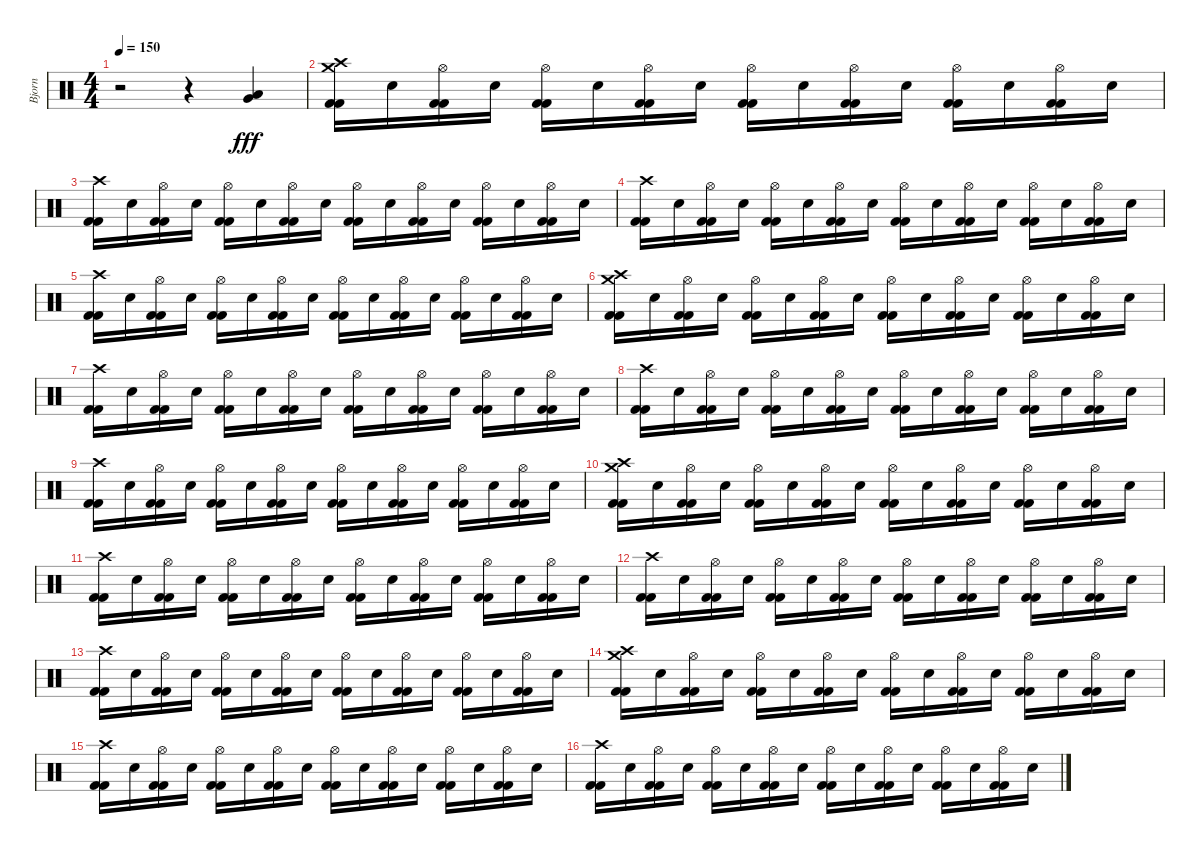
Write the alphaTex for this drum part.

\track ("Bjorn" "Bjorn") {instrument percussion}
\staff {score}
\articulation defaults
\ts (4 4)
\tempo 150
\clef neutral
\ks c
r.2{dy fff} r.4 ("Low Floor Tom (hit)" "Very Low Tom (hit)").4 |
("Kick (hit) 2" "Kick (hit) 2" "Crash high (hit)" "Crash medium (hit)").16 "Snare (hit) 2".16 ("Kick (hit) 2" "Kick (hit) 2" "Hi-Hat (open)").16 "Snare (hit) 2".16 ("Kick (hit) 2" "Kick (hit) 2" "Hi-Hat (open)").16 "Snare (hit) 2".16 ("Kick (hit) 2" "Kick (hit) 2" "Hi-Hat (open)").16 "Snare (hit) 2".16 ("Kick (hit) 2" "Kick (hit) 2" "Hi-Hat (open)").16 "Snare (hit) 2".16 ("Kick (hit) 2" "Kick (hit) 2" "Hi-Hat (open)").16 "Snare (hit) 2".16 ("Kick (hit) 2" "Kick (hit) 2" "Hi-Hat (open)").16 "Snare (hit) 2".16 ("Kick (hit) 2" "Kick (hit) 2" "Hi-Hat (open)").16 "Snare (hit) 2".16 |
("Kick (hit) 2" "Kick (hit) 2" "Crash high (hit)").16 "Snare (hit) 2".16 ("Kick (hit) 2" "Kick (hit) 2" "Hi-Hat (open)").16 "Snare (hit) 2".16 ("Kick (hit) 2" "Kick (hit) 2" "Hi-Hat (open)").16 "Snare (hit) 2".16 ("Kick (hit) 2" "Kick (hit) 2" "Hi-Hat (open)").16 "Snare (hit) 2".16 ("Kick (hit) 2" "Kick (hit) 2" "Hi-Hat (open)").16 "Snare (hit) 2".16 ("Kick (hit) 2" "Kick (hit) 2" "Hi-Hat (open)").16 "Snare (hit) 2".16 ("Kick (hit) 2" "Kick (hit) 2" "Hi-Hat (open)").16 "Snare (hit) 2".16 ("Kick (hit) 2" "Kick (hit) 2" "Hi-Hat (open)").16 "Snare (hit) 2".16 |
("Kick (hit) 2" "Kick (hit) 2" "Crash high (hit)").16 "Snare (hit) 2".16 ("Kick (hit) 2" "Kick (hit) 2" "Hi-Hat (open)").16 "Snare (hit) 2".16 ("Kick (hit) 2" "Kick (hit) 2" "Hi-Hat (open)").16 "Snare (hit) 2".16 ("Kick (hit) 2" "Kick (hit) 2" "Hi-Hat (open)").16 "Snare (hit) 2".16 ("Kick (hit) 2" "Kick (hit) 2" "Hi-Hat (open)").16 "Snare (hit) 2".16 ("Kick (hit) 2" "Kick (hit) 2" "Hi-Hat (open)").16 "Snare (hit) 2".16 ("Kick (hit) 2" "Kick (hit) 2" "Hi-Hat (open)").16 "Snare (hit) 2".16 ("Kick (hit) 2" "Kick (hit) 2" "Hi-Hat (open)").16 "Snare (hit) 2".16 |
("Kick (hit) 2" "Kick (hit) 2" "Crash high (hit)").16 "Snare (hit) 2".16 ("Kick (hit) 2" "Kick (hit) 2" "Hi-Hat (open)").16 "Snare (hit) 2".16 ("Kick (hit) 2" "Kick (hit) 2" "Hi-Hat (open)").16 "Snare (hit) 2".16 ("Kick (hit) 2" "Kick (hit) 2" "Hi-Hat (open)").16 "Snare (hit) 2".16 ("Kick (hit) 2" "Kick (hit) 2" "Hi-Hat (open)").16 "Snare (hit) 2".16 ("Kick (hit) 2" "Kick (hit) 2" "Hi-Hat (open)").16 "Snare (hit) 2".16 ("Kick (hit) 2" "Kick (hit) 2" "Hi-Hat (open)").16 "Snare (hit) 2".16 ("Kick (hit) 2" "Kick (hit) 2" "Hi-Hat (open)").16 "Snare (hit) 2".16 |
("Kick (hit) 2" "Kick (hit) 2" "Crash high (hit)" "Crash medium (hit)").16 "Snare (hit) 2".16 ("Kick (hit) 2" "Kick (hit) 2" "Hi-Hat (open)").16 "Snare (hit) 2".16 ("Kick (hit) 2" "Kick (hit) 2" "Hi-Hat (open)").16 "Snare (hit) 2".16 ("Kick (hit) 2" "Kick (hit) 2" "Hi-Hat (open)").16 "Snare (hit) 2".16 ("Kick (hit) 2" "Kick (hit) 2" "Hi-Hat (open)").16 "Snare (hit) 2".16 ("Kick (hit) 2" "Kick (hit) 2" "Hi-Hat (open)").16 "Snare (hit) 2".16 ("Kick (hit) 2" "Kick (hit) 2" "Hi-Hat (open)").16 "Snare (hit) 2".16 ("Kick (hit) 2" "Kick (hit) 2" "Hi-Hat (open)").16 "Snare (hit) 2".16 |
("Kick (hit) 2" "Kick (hit) 2" "Crash high (hit)").16 "Snare (hit) 2".16 ("Kick (hit) 2" "Kick (hit) 2" "Hi-Hat (open)").16 "Snare (hit) 2".16 ("Kick (hit) 2" "Kick (hit) 2" "Hi-Hat (open)").16 "Snare (hit) 2".16 ("Kick (hit) 2" "Kick (hit) 2" "Hi-Hat (open)").16 "Snare (hit) 2".16 ("Kick (hit) 2" "Kick (hit) 2" "Hi-Hat (open)").16 "Snare (hit) 2".16 ("Kick (hit) 2" "Kick (hit) 2" "Hi-Hat (open)").16 "Snare (hit) 2".16 ("Kick (hit) 2" "Kick (hit) 2" "Hi-Hat (open)").16 "Snare (hit) 2".16 ("Kick (hit) 2" "Kick (hit) 2" "Hi-Hat (open)").16 "Snare (hit) 2".16 |
("Kick (hit) 2" "Kick (hit) 2" "Crash high (hit)").16 "Snare (hit) 2".16 ("Kick (hit) 2" "Kick (hit) 2" "Hi-Hat (open)").16 "Snare (hit) 2".16 ("Kick (hit) 2" "Kick (hit) 2" "Hi-Hat (open)").16 "Snare (hit) 2".16 ("Kick (hit) 2" "Kick (hit) 2" "Hi-Hat (open)").16 "Snare (hit) 2".16 ("Kick (hit) 2" "Kick (hit) 2" "Hi-Hat (open)").16 "Snare (hit) 2".16 ("Kick (hit) 2" "Kick (hit) 2" "Hi-Hat (open)").16 "Snare (hit) 2".16 ("Kick (hit) 2" "Kick (hit) 2" "Hi-Hat (open)").16 "Snare (hit) 2".16 ("Kick (hit) 2" "Kick (hit) 2" "Hi-Hat (open)").16 "Snare (hit) 2".16 |
("Kick (hit) 2" "Kick (hit) 2" "Crash high (hit)").16 "Snare (hit) 2".16 ("Kick (hit) 2" "Kick (hit) 2" "Hi-Hat (open)").16 "Snare (hit) 2".16 ("Kick (hit) 2" "Kick (hit) 2" "Hi-Hat (open)").16 "Snare (hit) 2".16 ("Kick (hit) 2" "Kick (hit) 2" "Hi-Hat (open)").16 "Snare (hit) 2".16 ("Kick (hit) 2" "Kick (hit) 2" "Hi-Hat (open)").16 "Snare (hit) 2".16 ("Kick (hit) 2" "Kick (hit) 2" "Hi-Hat (open)").16 "Snare (hit) 2".16 ("Kick (hit) 2" "Kick (hit) 2" "Hi-Hat (open)").16 "Snare (hit) 2".16 ("Kick (hit) 2" "Kick (hit) 2" "Hi-Hat (open)").16 "Snare (hit) 2".16 |
("Kick (hit) 2" "Kick (hit) 2" "Crash high (hit)" "Crash medium (hit)").16 "Snare (hit) 2".16 ("Kick (hit) 2" "Kick (hit) 2" "Hi-Hat (open)").16 "Snare (hit) 2".16 ("Kick (hit) 2" "Kick (hit) 2" "Hi-Hat (open)").16 "Snare (hit) 2".16 ("Kick (hit) 2" "Kick (hit) 2" "Hi-Hat (open)").16 "Snare (hit) 2".16 ("Kick (hit) 2" "Kick (hit) 2" "Hi-Hat (open)").16 "Snare (hit) 2".16 ("Kick (hit) 2" "Kick (hit) 2" "Hi-Hat (open)").16 "Snare (hit) 2".16 ("Kick (hit) 2" "Kick (hit) 2" "Hi-Hat (open)").16 "Snare (hit) 2".16 ("Kick (hit) 2" "Kick (hit) 2" "Hi-Hat (open)").16 "Snare (hit) 2".16 |
("Kick (hit) 2" "Kick (hit) 2" "Crash high (hit)").16 "Snare (hit) 2".16 ("Kick (hit) 2" "Kick (hit) 2" "Hi-Hat (open)").16 "Snare (hit) 2".16 ("Kick (hit) 2" "Kick (hit) 2" "Hi-Hat (open)").16 "Snare (hit) 2".16 ("Kick (hit) 2" "Kick (hit) 2" "Hi-Hat (open)").16 "Snare (hit) 2".16 ("Kick (hit) 2" "Kick (hit) 2" "Hi-Hat (open)").16 "Snare (hit) 2".16 ("Kick (hit) 2" "Kick (hit) 2" "Hi-Hat (open)").16 "Snare (hit) 2".16 ("Kick (hit) 2" "Kick (hit) 2" "Hi-Hat (open)").16 "Snare (hit) 2".16 ("Kick (hit) 2" "Kick (hit) 2" "Hi-Hat (open)").16 "Snare (hit) 2".16 |
("Kick (hit) 2" "Kick (hit) 2" "Crash high (hit)").16 "Snare (hit) 2".16 ("Kick (hit) 2" "Kick (hit) 2" "Hi-Hat (open)").16 "Snare (hit) 2".16 ("Kick (hit) 2" "Kick (hit) 2" "Hi-Hat (open)").16 "Snare (hit) 2".16 ("Kick (hit) 2" "Kick (hit) 2" "Hi-Hat (open)").16 "Snare (hit) 2".16 ("Kick (hit) 2" "Kick (hit) 2" "Hi-Hat (open)").16 "Snare (hit) 2".16 ("Kick (hit) 2" "Kick (hit) 2" "Hi-Hat (open)").16 "Snare (hit) 2".16 ("Kick (hit) 2" "Kick (hit) 2" "Hi-Hat (open)").16 "Snare (hit) 2".16 ("Kick (hit) 2" "Kick (hit) 2" "Hi-Hat (open)").16 "Snare (hit) 2".16 |
("Kick (hit) 2" "Kick (hit) 2" "Crash high (hit)").16 "Snare (hit) 2".16 ("Kick (hit) 2" "Kick (hit) 2" "Hi-Hat (open)").16 "Snare (hit) 2".16 ("Kick (hit) 2" "Kick (hit) 2" "Hi-Hat (open)").16 "Snare (hit) 2".16 ("Kick (hit) 2" "Kick (hit) 2" "Hi-Hat (open)").16 "Snare (hit) 2".16 ("Kick (hit) 2" "Kick (hit) 2" "Hi-Hat (open)").16 "Snare (hit) 2".16 ("Kick (hit) 2" "Kick (hit) 2" "Hi-Hat (open)").16 "Snare (hit) 2".16 ("Kick (hit) 2" "Kick (hit) 2" "Hi-Hat (open)").16 "Snare (hit) 2".16 ("Kick (hit) 2" "Kick (hit) 2" "Hi-Hat (open)").16 "Snare (hit) 2".16 |
("Kick (hit) 2" "Kick (hit) 2" "Crash high (hit)" "Crash medium (hit)").16 "Snare (hit) 2".16 ("Kick (hit) 2" "Kick (hit) 2" "Hi-Hat (open)").16 "Snare (hit) 2".16 ("Kick (hit) 2" "Kick (hit) 2" "Hi-Hat (open)").16 "Snare (hit) 2".16 ("Kick (hit) 2" "Kick (hit) 2" "Hi-Hat (open)").16 "Snare (hit) 2".16 ("Kick (hit) 2" "Kick (hit) 2" "Hi-Hat (open)").16 "Snare (hit) 2".16 ("Kick (hit) 2" "Kick (hit) 2" "Hi-Hat (open)").16 "Snare (hit) 2".16 ("Kick (hit) 2" "Kick (hit) 2" "Hi-Hat (open)").16 "Snare (hit) 2".16 ("Kick (hit) 2" "Kick (hit) 2" "Hi-Hat (open)").16 "Snare (hit) 2".16 |
("Kick (hit) 2" "Kick (hit) 2" "Crash high (hit)").16 "Snare (hit) 2".16 ("Kick (hit) 2" "Kick (hit) 2" "Hi-Hat (open)").16 "Snare (hit) 2".16 ("Kick (hit) 2" "Kick (hit) 2" "Hi-Hat (open)").16 "Snare (hit) 2".16 ("Kick (hit) 2" "Kick (hit) 2" "Hi-Hat (open)").16 "Snare (hit) 2".16 ("Kick (hit) 2" "Kick (hit) 2" "Hi-Hat (open)").16 "Snare (hit) 2".16 ("Kick (hit) 2" "Kick (hit) 2" "Hi-Hat (open)").16 "Snare (hit) 2".16 ("Kick (hit) 2" "Kick (hit) 2" "Hi-Hat (open)").16 "Snare (hit) 2".16 ("Kick (hit) 2" "Kick (hit) 2" "Hi-Hat (open)").16 "Snare (hit) 2".16 |
("Kick (hit) 2" "Kick (hit) 2" "Crash high (hit)").16 "Snare (hit) 2".16 ("Kick (hit) 2" "Kick (hit) 2" "Hi-Hat (open)").16 "Snare (hit) 2".16 ("Kick (hit) 2" "Kick (hit) 2" "Hi-Hat (open)").16 "Snare (hit) 2".16 ("Kick (hit) 2" "Kick (hit) 2" "Hi-Hat (open)").16 "Snare (hit) 2".16 ("Kick (hit) 2" "Kick (hit) 2" "Hi-Hat (open)").16 "Snare (hit) 2".16 ("Kick (hit) 2" "Kick (hit) 2" "Hi-Hat (open)").16 "Snare (hit) 2".16 ("Kick (hit) 2" "Kick (hit) 2" "Hi-Hat (open)").16 "Snare (hit) 2".16 ("Kick (hit) 2" "Kick (hit) 2" "Hi-Hat (open)").16 "Snare (hit) 2".16
